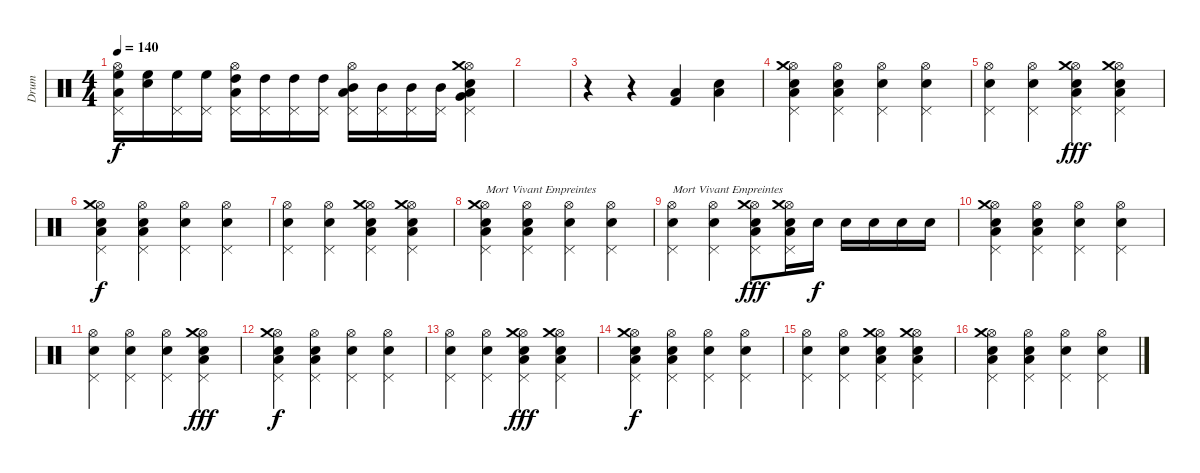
\track ("Drum" "Drum") {instrument percussion}
\staff {score}
\articulation defaults
\ts (4 4)
\tempo 140
\clef neutral
\ks c
("Hi-Hat (open)" "High Floor Tom (hit)" "Low Tom (hit)" "Pedal Hi-Hat (hit)").16{dy f} ("High Floor Tom (hit)" "Snare (hit)").16 ("High Floor Tom (hit)" "Pedal Hi-Hat (hit)").16 ("High Floor Tom (hit)" "Pedal Hi-Hat (hit)").16 ("Hi-Hat (open)" "High Tom (hit)" "Low Tom (hit)" "Pedal Hi-Hat (hit)").16 ("High Tom (hit)" "Pedal Hi-Hat (hit)").16 ("High Tom (hit)" "Pedal Hi-Hat (hit)").16 ("High Tom (hit)" "Pedal Hi-Hat (hit)").16 ("Hi-Hat (open)" "Mid Tom (hit)" "Low Tom (hit)" "Pedal Hi-Hat (hit)").16 ("Mid Tom (hit)" "Pedal Hi-Hat (hit)").16 ("Mid Tom (hit)" "Pedal Hi-Hat (hit)").16 ("Mid Tom (hit)" "Pedal Hi-Hat (hit)").16 ("Hi-Hat (open)" "Snare (hit) 2" "Very Low Tom (hit)" "Low Tom (hit)" "Crash medium (hit)" "Pedal Hi-Hat (hit)").4 |
|
r.4 r.4 ("Kick (hit) 2" "Low Tom (hit)").4 ("Snare (hit) 2" "Low Tom (hit)").4 |
("Hi-Hat (open)" "Low Tom (hit)" "Snare (hit) 2" "Crash medium (hit)" "Pedal Hi-Hat (hit)").4 ("Hi-Hat (open)" "Low Tom (hit)" "Snare (hit) 2" "Pedal Hi-Hat (hit)").4 ("Hi-Hat (open)" "Snare (hit) 2" "Pedal Hi-Hat (hit)").4 ("Hi-Hat (open)" "Snare (hit) 2" "Pedal Hi-Hat (hit)").4 |
("Hi-Hat (open)" "Snare (hit) 2" "Pedal Hi-Hat (hit)").4 ("Hi-Hat (open)" "Snare (hit) 2" "Pedal Hi-Hat (hit)").4 ("Hi-Hat (open)" "Low Tom (hit)" "Snare (hit) 2" "Crash medium (hit)" "Pedal Hi-Hat (hit)").4{dy fff} ("Hi-Hat (open)" "Low Tom (hit)" "Snare (hit) 2" "Crash medium (hit)" "Pedal Hi-Hat (hit)").4 |
("Hi-Hat (open)" "Low Tom (hit)" "Snare (hit) 2" "Crash medium (hit)" "Pedal Hi-Hat (hit)").4{dy f} ("Hi-Hat (open)" "Low Tom (hit)" "Snare (hit) 2" "Pedal Hi-Hat (hit)").4 ("Hi-Hat (open)" "Snare (hit) 2" "Pedal Hi-Hat (hit)").4 ("Hi-Hat (open)" "Snare (hit) 2" "Pedal Hi-Hat (hit)").4 |
("Hi-Hat (open)" "Snare (hit) 2" "Pedal Hi-Hat (hit)").4 ("Hi-Hat (open)" "Snare (hit) 2" "Pedal Hi-Hat (hit)").4 ("Hi-Hat (open)" "Low Tom (hit)" "Snare (hit) 2" "Crash medium (hit)" "Pedal Hi-Hat (hit)").4 ("Hi-Hat (open)" "Low Tom (hit)" "Snare (hit) 2" "Crash medium (hit)" "Pedal Hi-Hat (hit)").4 |
("Hi-Hat (open)" "Low Tom (hit)" "Snare (hit) 2" "Crash medium (hit)" "Pedal Hi-Hat (hit)").4{txt "Mort Vivant Empreintes"} ("Hi-Hat (open)" "Low Tom (hit)" "Snare (hit) 2" "Pedal Hi-Hat (hit)").4 ("Hi-Hat (open)" "Snare (hit) 2" "Pedal Hi-Hat (hit)").4 ("Hi-Hat (open)" "Snare (hit) 2" "Pedal Hi-Hat (hit)").4 |
("Hi-Hat (open)" "Snare (hit) 2" "Pedal Hi-Hat (hit)").4{txt "Mort Vivant Empreintes"} ("Hi-Hat (open)" "Snare (hit) 2" "Pedal Hi-Hat (hit)").4 ("Hi-Hat (open)" "Low Tom (hit)" "Snare (hit) 2" "Crash medium (hit)" "Pedal Hi-Hat (hit)").8{dy fff} ("Hi-Hat (open)" "Low Tom (hit)" "Snare (hit) 2" "Crash medium (hit)" "Pedal Hi-Hat (hit)").16 "Snare (hit) 2".16{dy f} "Snare (hit) 2".16 "Snare (hit) 2".16 "Snare (hit) 2".16 "Snare (hit) 2".16 |
("Hi-Hat (open)" "Low Tom (hit)" "Snare (hit) 2" "Crash medium (hit)" "Pedal Hi-Hat (hit)").4 ("Hi-Hat (open)" "Low Tom (hit)" "Snare (hit) 2" "Pedal Hi-Hat (hit)").4 ("Hi-Hat (open)" "Snare (hit) 2" "Pedal Hi-Hat (hit)").4 ("Hi-Hat (open)" "Snare (hit) 2" "Pedal Hi-Hat (hit)").4 |
("Hi-Hat (open)" "Snare (hit) 2" "Pedal Hi-Hat (hit)").4 ("Hi-Hat (open)" "Snare (hit) 2" "Pedal Hi-Hat (hit)").4 ("Hi-Hat (open)" "Snare (hit) 2" "Pedal Hi-Hat (hit)").4 ("Hi-Hat (open)" "Low Tom (hit)" "Snare (hit) 2" "Crash medium (hit)" "Pedal Hi-Hat (hit)").4{dy fff} |
("Hi-Hat (open)" "Low Tom (hit)" "Snare (hit) 2" "Crash medium (hit)" "Pedal Hi-Hat (hit)").4{dy f} ("Hi-Hat (open)" "Low Tom (hit)" "Snare (hit) 2" "Pedal Hi-Hat (hit)").4 ("Hi-Hat (open)" "Snare (hit) 2" "Pedal Hi-Hat (hit)").4 ("Hi-Hat (open)" "Snare (hit) 2" "Pedal Hi-Hat (hit)").4 |
("Hi-Hat (open)" "Snare (hit) 2" "Pedal Hi-Hat (hit)").4 ("Hi-Hat (open)" "Snare (hit) 2" "Pedal Hi-Hat (hit)").4 ("Hi-Hat (open)" "Low Tom (hit)" "Snare (hit) 2" "Crash medium (hit)" "Pedal Hi-Hat (hit)").4{dy fff} ("Hi-Hat (open)" "Low Tom (hit)" "Snare (hit) 2" "Crash medium (hit)" "Pedal Hi-Hat (hit)").4 |
("Hi-Hat (open)" "Low Tom (hit)" "Snare (hit) 2" "Crash medium (hit)" "Pedal Hi-Hat (hit)").4{dy f} ("Hi-Hat (open)" "Low Tom (hit)" "Snare (hit) 2" "Pedal Hi-Hat (hit)").4 ("Hi-Hat (open)" "Snare (hit) 2" "Pedal Hi-Hat (hit)").4 ("Hi-Hat (open)" "Snare (hit) 2" "Pedal Hi-Hat (hit)").4 |
("Hi-Hat (open)" "Snare (hit) 2" "Pedal Hi-Hat (hit)").4 ("Hi-Hat (open)" "Snare (hit) 2" "Pedal Hi-Hat (hit)").4 ("Hi-Hat (open)" "Low Tom (hit)" "Snare (hit) 2" "Crash medium (hit)" "Pedal Hi-Hat (hit)").4 ("Hi-Hat (open)" "Low Tom (hit)" "Snare (hit) 2" "Crash medium (hit)" "Pedal Hi-Hat (hit)").4 |
("Hi-Hat (open)" "Low Tom (hit)" "Snare (hit) 2" "Crash medium (hit)" "Pedal Hi-Hat (hit)").4 ("Hi-Hat (open)" "Low Tom (hit)" "Snare (hit) 2" "Pedal Hi-Hat (hit)").4 ("Hi-Hat (open)" "Snare (hit) 2" "Pedal Hi-Hat (hit)").4 ("Hi-Hat (open)" "Snare (hit) 2" "Pedal Hi-Hat (hit)").4
